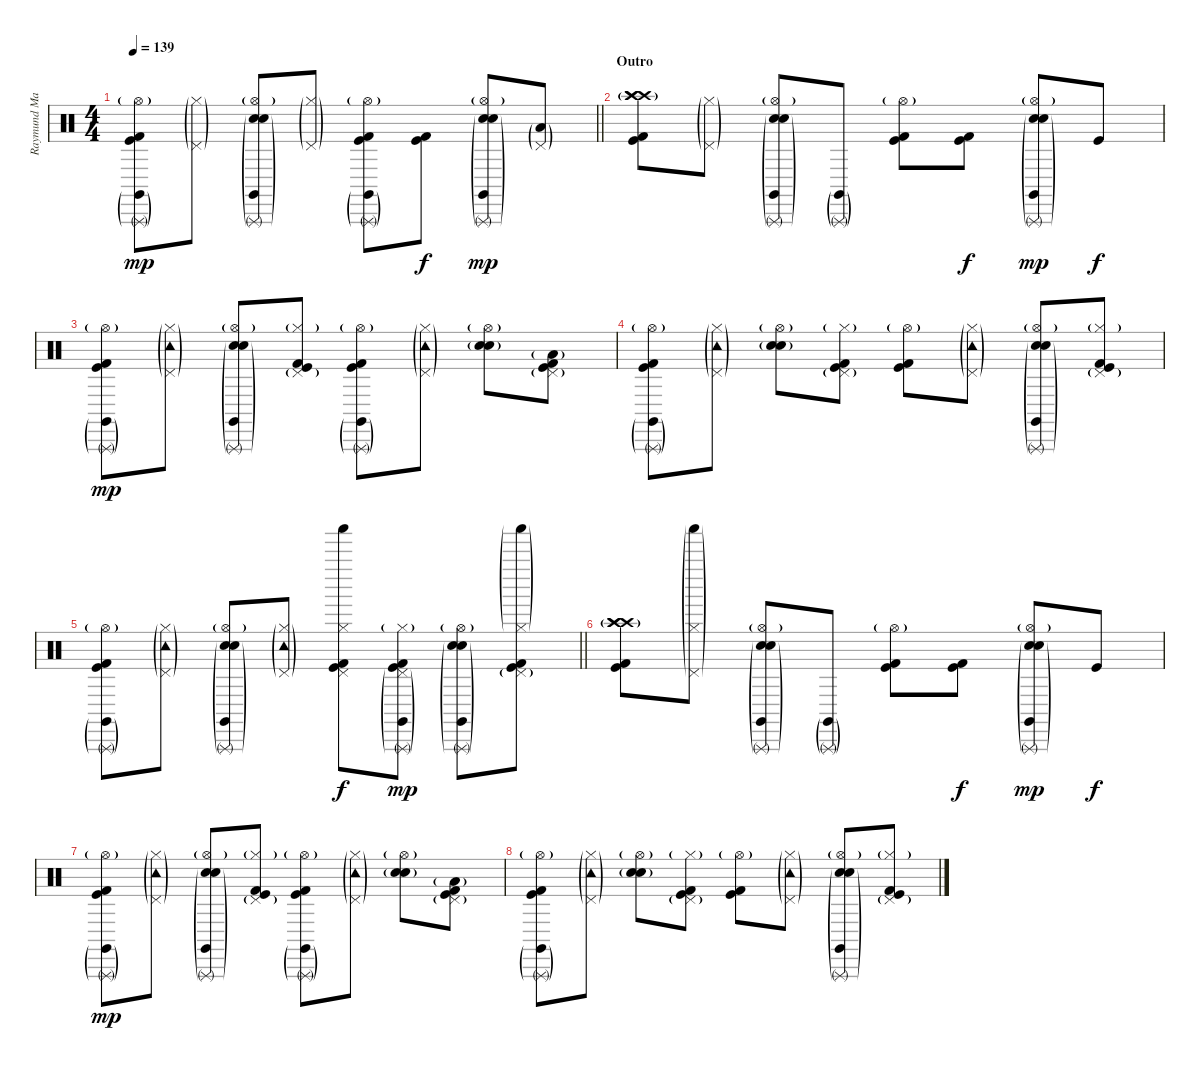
\track ("Raymund Marasigan(Drums)" "Raymund Ma") {instrument percussion}
\staff {score}
\articulation defaults
\ts (4 4)
\tempo 139
\clef neutral
\barLineRight lightlight
\ks c
("Kick (hit) 2" "Kick (hit)" "Triangle (rnute)"{g} "Claves (hit)"{g} "Hi-Hat (open)"{g}).8{dy mp} ("Pedal Hi-Hat (hit)"{g} "Hi-Hat (closed)"{g}).8 ("Electric Snare (hit)" "Snare (hit) 2"{g} "Hi-Hat (open)"{g} "Triangle (rnute)"{g} "Claves (hit)"{g}).8 ("Pedal Hi-Hat (hit)"{g} "Hi-Hat (closed)"{g}).8 ("Kick (hit) 2" "Kick (hit)" "Triangle (rnute)"{g} "Claves (hit)"{g} "Hi-Hat (open)"{g}).8 ("Kick (hit) 2" "Kick (hit)").8{dy f} ("Electric Snare (hit)" "Snare (hit) 2"{g} "Hi-Hat (open)"{g} "Triangle (rnute)"{g} "Claves (hit)"{g}).8{dy mp} ("Pedal Hi-Hat (hit)"{g} "Low Tom (hit)"{g}).8 |
\section ("" "Outro")
("Crash high (hit)"{g} "Crash high (hit)"{g} "Crash high (hit)"{g} "Kick (hit) 2" "Kick (hit)").8 ("Pedal Hi-Hat (hit)"{g} "Hi-Hat (closed)"{g}).8 ("Electric Snare (hit)" "Snare (hit) 2"{g} "Hi-Hat (open)"{g} "Triangle (rnute)"{g} "Claves (hit)"{g}).8 ("Triangle (rnute)"{g} "Claves (hit)"{g}).8 ("Kick (hit) 2" "Kick (hit)" "Hi-Hat (open)"{g}).8 ("Kick (hit) 2" "Kick (hit)").8{dy f} ("Electric Snare (hit)" "Snare (hit) 2"{g} "Hi-Hat (open)"{g} "Triangle (rnute)"{g} "Claves (hit)"{g}).8{dy mp} "Kick (hit)".8{dy f} |
("Kick (hit) 2" "Kick (hit)" "Triangle (rnute)"{g} "Claves (hit)"{g} "Hi-Hat (open)"{g}).8{dy mp} ("Pedal Hi-Hat (hit)"{g} "Hi-Hat (closed)"{g} "Tambourine (hit)"{g}).8 ("Electric Snare (hit)" "Snare (hit) 2"{g} "Hi-Hat (open)"{g} "Triangle (rnute)"{g} "Claves (hit)"{g}).8 ("Kick (hit) 2" "Kick (hit)" "Pedal Hi-Hat (hit)"{g} "Hi-Hat (closed)"{g}).8 ("Kick (hit) 2" "Kick (hit)" "Triangle (rnute)"{g} "Claves (hit)"{g} "Hi-Hat (open)"{g}).8 ("Pedal Hi-Hat (hit)"{g} "Hi-Hat (closed)"{g} "Tambourine (hit)"{g}).8 ("Electric Snare (hit)" "Snare (hit) 2"{g} "Hi-Hat (open)"{g}).8 ("Pedal Hi-Hat (hit)"{g} "Low Tom (hit)"{g} "Kick (hit) 2" "Kick (hit)").8 |
("Hi-Hat (open)"{g} "Triangle (rnute)"{g} "Claves (hit)"{g} "Kick (hit) 2" "Kick (hit)").8 ("Pedal Hi-Hat (hit)"{g} "Hi-Hat (closed)"{g} "Tambourine (hit)"{g}).8 ("Electric Snare (hit)" "Snare (hit) 2"{g} "Hi-Hat (open)"{g}).8 ("Kick (hit) 2" "Kick (hit)" "Pedal Hi-Hat (hit)"{g} "Hi-Hat (closed)"{g}).8 ("Kick (hit) 2" "Kick (hit)" "Hi-Hat (open)"{g}).8 ("Pedal Hi-Hat (hit)"{g} "Hi-Hat (closed)"{g} "Tambourine (hit)"{g}).8 ("Electric Snare (hit)" "Snare (hit) 2"{g} "Hi-Hat (open)"{g} "Triangle (rnute)"{g} "Claves (hit)"{g}).8 ("Kick (hit)" "Kick (hit) 2" "Pedal Hi-Hat (hit)"{g} "Hi-Hat (closed)"{g}).8 |
\barLineRight lightlight
("Kick (hit) 2" "Kick (hit)" "Triangle (rnute)"{g} "Claves (hit)"{g} "Hi-Hat (open)"{g}).8 ("Pedal Hi-Hat (hit)"{g} "Hi-Hat (closed)"{g} "Tambourine (hit)"{g}).8 ("Electric Snare (hit)" "Snare (hit) 2"{g} "Hi-Hat (open)"{g} "Triangle (rnute)"{g} "Claves (hit)"{g}).8 ("Pedal Hi-Hat (hit)"{g} "Hi-Hat (closed)"{g} "Tambourine (hit)"{g}).8 ("Kick (hit) 2" "Kick (hit)" "Pedal Hi-Hat (hit)" "Hi-Hat (closed)" "Shaker (hit)").8{dy f} ("Kick (hit) 2" "Kick (hit)" "Pedal Hi-Hat (hit)"{g} "Hi-Hat (closed)"{g} "Triangle (rnute)"{g} "Claves (hit)"{g}).8{dy mp} ("Electric Snare (hit)" "Snare (hit) 2"{g} "Hi-Hat (open)"{g} "Triangle (rnute)"{g} "Claves (hit)"{g}).8 ("Kick (hit) 2" "Kick (hit)" "Pedal Hi-Hat (hit)"{g} "Hi-Hat (closed)"{g} "Shaker (hit)"{g}).8 |
("Crash high (hit)"{g} "Crash high (hit)"{g} "Crash high (hit)"{g} "Kick (hit) 2" "Kick (hit)").8 ("Pedal Hi-Hat (hit)"{g} "Hi-Hat (closed)"{g} "Shaker (hit)"{g}).8 ("Electric Snare (hit)" "Snare (hit) 2"{g} "Hi-Hat (open)"{g} "Triangle (rnute)"{g} "Claves (hit)"{g}).8 ("Triangle (rnute)"{g} "Claves (hit)"{g}).8 ("Kick (hit) 2" "Kick (hit)" "Hi-Hat (open)"{g}).8 ("Kick (hit) 2" "Kick (hit)").8{dy f} ("Electric Snare (hit)" "Snare (hit) 2"{g} "Hi-Hat (open)"{g} "Triangle (rnute)"{g} "Claves (hit)"{g}).8{dy mp} "Kick (hit)".8{dy f} |
("Kick (hit) 2" "Kick (hit)" "Triangle (rnute)"{g} "Claves (hit)"{g} "Hi-Hat (open)"{g}).8{dy mp} ("Pedal Hi-Hat (hit)"{g} "Hi-Hat (closed)"{g} "Tambourine (hit)"{g}).8 ("Electric Snare (hit)" "Snare (hit) 2"{g} "Hi-Hat (open)"{g} "Triangle (rnute)"{g} "Claves (hit)"{g}).8 ("Kick (hit) 2" "Kick (hit)" "Pedal Hi-Hat (hit)"{g} "Hi-Hat (closed)"{g}).8 ("Kick (hit) 2" "Kick (hit)" "Triangle (rnute)"{g} "Claves (hit)"{g} "Hi-Hat (open)"{g}).8 ("Pedal Hi-Hat (hit)"{g} "Hi-Hat (closed)"{g} "Tambourine (hit)"{g}).8 ("Electric Snare (hit)" "Snare (hit) 2"{g} "Hi-Hat (open)"{g}).8 ("Pedal Hi-Hat (hit)"{g} "Low Tom (hit)"{g} "Kick (hit) 2" "Kick (hit)").8 |
("Hi-Hat (open)"{g} "Triangle (rnute)"{g} "Claves (hit)"{g} "Kick (hit) 2" "Kick (hit)").8 ("Pedal Hi-Hat (hit)"{g} "Hi-Hat (closed)"{g} "Tambourine (hit)"{g}).8 ("Electric Snare (hit)" "Snare (hit) 2"{g} "Hi-Hat (open)"{g}).8 ("Kick (hit) 2" "Kick (hit)" "Pedal Hi-Hat (hit)"{g} "Hi-Hat (closed)"{g}).8 ("Kick (hit) 2" "Kick (hit)" "Hi-Hat (open)"{g}).8 ("Pedal Hi-Hat (hit)"{g} "Hi-Hat (closed)"{g} "Tambourine (hit)"{g}).8 ("Electric Snare (hit)" "Snare (hit) 2"{g} "Hi-Hat (open)"{g} "Triangle (rnute)"{g} "Claves (hit)"{g}).8 ("Kick (hit)" "Kick (hit) 2" "Pedal Hi-Hat (hit)"{g} "Hi-Hat (closed)"{g}).8
